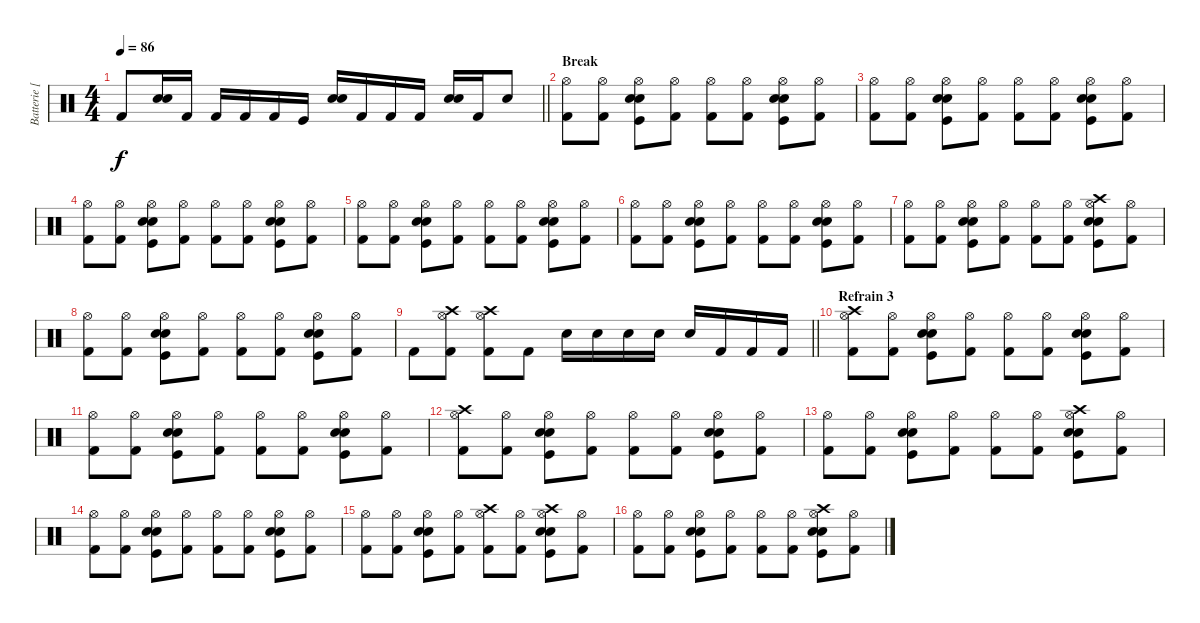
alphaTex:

\track ("Batterie [Dominic Howard]" "Batterie [") {instrument percussion}
\staff {score}
\articulation defaults
\ts (4 4)
\tempo 86
\clef neutral
\barLineRight lightlight
\ks c "Kick (hit) 2".8{dy f}
("Snare (hit) 2" "Electric Snare (hit)").16 "Kick (hit) 2".16 "Kick (hit) 2".16 "Kick (hit) 2".16 "Kick (hit) 2".16 "Kick (hit)".16 ("Snare (hit) 2" "Electric Snare (hit)").16 "Kick (hit) 2".16 "Kick (hit) 2".16 "Kick (hit) 2".16 ("Snare (hit) 2" "Electric Snare (hit)").16 "Kick (hit) 2".16 "Snare (hit) 2".8 |
\section ("" "Break")
("Hi-Hat (open)" "Kick (hit) 2").8 ("Hi-Hat (open)" "Kick (hit) 2").8 ("Hi-Hat (open)" "Snare (hit) 2" "Electric Snare (hit)" "Kick (hit)").8 ("Hi-Hat (open)" "Kick (hit) 2").8 ("Hi-Hat (open)" "Kick (hit) 2").8 ("Hi-Hat (open)" "Kick (hit) 2").8 ("Hi-Hat (open)" "Snare (hit) 2" "Electric Snare (hit)" "Kick (hit)").8 ("Hi-Hat (open)" "Kick (hit) 2").8 |
("Hi-Hat (open)" "Kick (hit) 2").8 ("Hi-Hat (open)" "Kick (hit) 2").8 ("Hi-Hat (open)" "Snare (hit) 2" "Electric Snare (hit)" "Kick (hit)").8 ("Hi-Hat (open)" "Kick (hit) 2").8 ("Hi-Hat (open)" "Kick (hit) 2").8 ("Hi-Hat (open)" "Kick (hit) 2").8 ("Hi-Hat (open)" "Snare (hit) 2" "Electric Snare (hit)" "Kick (hit)").8 ("Hi-Hat (open)" "Kick (hit) 2").8 |
("Hi-Hat (open)" "Kick (hit) 2").8 ("Hi-Hat (open)" "Kick (hit) 2").8 ("Hi-Hat (open)" "Snare (hit) 2" "Electric Snare (hit)" "Kick (hit)").8 ("Hi-Hat (open)" "Kick (hit) 2").8 ("Hi-Hat (open)" "Kick (hit) 2").8 ("Hi-Hat (open)" "Kick (hit) 2").8 ("Hi-Hat (open)" "Snare (hit) 2" "Electric Snare (hit)" "Kick (hit)").8 ("Hi-Hat (open)" "Kick (hit) 2").8 |
("Hi-Hat (open)" "Kick (hit) 2").8 ("Hi-Hat (open)" "Kick (hit) 2").8 ("Hi-Hat (open)" "Snare (hit) 2" "Electric Snare (hit)" "Kick (hit)").8 ("Hi-Hat (open)" "Kick (hit) 2").8 ("Hi-Hat (open)" "Kick (hit) 2").8 ("Hi-Hat (open)" "Kick (hit) 2").8 ("Hi-Hat (open)" "Snare (hit) 2" "Electric Snare (hit)" "Kick (hit)").8 ("Hi-Hat (open)" "Kick (hit) 2").8 |
("Hi-Hat (open)" "Kick (hit) 2").8 ("Hi-Hat (open)" "Kick (hit) 2").8 ("Hi-Hat (open)" "Snare (hit) 2" "Electric Snare (hit)" "Kick (hit)").8 ("Hi-Hat (open)" "Kick (hit) 2").8 ("Hi-Hat (open)" "Kick (hit) 2").8 ("Hi-Hat (open)" "Kick (hit) 2").8 ("Hi-Hat (open)" "Snare (hit) 2" "Electric Snare (hit)" "Kick (hit)").8 ("Hi-Hat (open)" "Kick (hit) 2").8 |
("Hi-Hat (open)" "Kick (hit) 2").8 ("Hi-Hat (open)" "Kick (hit) 2").8 ("Hi-Hat (open)" "Snare (hit) 2" "Electric Snare (hit)" "Kick (hit)").8 ("Hi-Hat (open)" "Kick (hit) 2").8 ("Hi-Hat (open)" "Kick (hit) 2").8 ("Hi-Hat (open)" "Kick (hit) 2").8 ("Hi-Hat (open)" "Snare (hit) 2" "Electric Snare (hit)" "Kick (hit)" "Crash high (hit)").8 ("Hi-Hat (open)" "Kick (hit) 2").8 |
("Hi-Hat (open)" "Kick (hit) 2").8 ("Hi-Hat (open)" "Kick (hit) 2").8 ("Hi-Hat (open)" "Snare (hit) 2" "Electric Snare (hit)" "Kick (hit)").8 ("Hi-Hat (open)" "Kick (hit) 2").8 ("Hi-Hat (open)" "Kick (hit) 2").8 ("Hi-Hat (open)" "Kick (hit) 2").8 ("Hi-Hat (open)" "Snare (hit) 2" "Electric Snare (hit)" "Kick (hit)").8 ("Hi-Hat (open)" "Kick (hit) 2").8 |
\barLineRight lightlight "Kick (hit) 2".8
("Crash high (hit)" "Hi-Hat (open)" "Kick (hit) 2").8 ("Crash high (hit)" "Hi-Hat (open)" "Kick (hit) 2").8 "Kick (hit) 2".8 "Snare (hit) 2".16 "Snare (hit) 2".16 "Snare (hit) 2".16 "Snare (hit) 2".16 "Snare (hit) 2".16 "Kick (hit) 2".16 "Kick (hit) 2".16 "Kick (hit) 2".16 |
\section ("" "Refrain 3")
("Hi-Hat (open)" "Crash high (hit)" "Kick (hit) 2").8 ("Hi-Hat (open)" "Kick (hit) 2").8 ("Hi-Hat (open)" "Snare (hit) 2" "Electric Snare (hit)" "Kick (hit)").8 ("Hi-Hat (open)" "Kick (hit) 2").8 ("Hi-Hat (open)" "Kick (hit) 2").8 ("Hi-Hat (open)" "Kick (hit) 2").8 ("Hi-Hat (open)" "Snare (hit) 2" "Electric Snare (hit)" "Kick (hit)").8 ("Hi-Hat (open)" "Kick (hit) 2").8 |
("Hi-Hat (open)" "Kick (hit) 2").8 ("Hi-Hat (open)" "Kick (hit) 2").8 ("Hi-Hat (open)" "Snare (hit) 2" "Electric Snare (hit)" "Kick (hit)").8 ("Hi-Hat (open)" "Kick (hit) 2").8 ("Hi-Hat (open)" "Kick (hit) 2").8 ("Hi-Hat (open)" "Kick (hit) 2").8 ("Hi-Hat (open)" "Snare (hit) 2" "Electric Snare (hit)" "Kick (hit)").8 ("Hi-Hat (open)" "Kick (hit) 2").8 |
("Hi-Hat (open)" "Crash high (hit)" "Kick (hit) 2").8 ("Hi-Hat (open)" "Kick (hit) 2").8 ("Hi-Hat (open)" "Snare (hit) 2" "Electric Snare (hit)" "Kick (hit)").8 ("Hi-Hat (open)" "Kick (hit) 2").8 ("Hi-Hat (open)" "Kick (hit) 2").8 ("Hi-Hat (open)" "Kick (hit) 2").8 ("Hi-Hat (open)" "Snare (hit) 2" "Electric Snare (hit)" "Kick (hit)").8 ("Hi-Hat (open)" "Kick (hit) 2").8 |
("Hi-Hat (open)" "Kick (hit) 2").8 ("Hi-Hat (open)" "Kick (hit) 2").8 ("Hi-Hat (open)" "Snare (hit) 2" "Electric Snare (hit)" "Kick (hit)").8 ("Hi-Hat (open)" "Kick (hit) 2").8 ("Hi-Hat (open)" "Kick (hit) 2").8 ("Hi-Hat (open)" "Kick (hit) 2").8 ("Hi-Hat (open)" "Snare (hit) 2" "Electric Snare (hit)" "Kick (hit)" "Crash high (hit)").8 ("Hi-Hat (open)" "Kick (hit) 2").8 |
("Hi-Hat (open)" "Kick (hit) 2").8 ("Hi-Hat (open)" "Kick (hit) 2").8 ("Hi-Hat (open)" "Snare (hit) 2" "Electric Snare (hit)" "Kick (hit)").8 ("Hi-Hat (open)" "Kick (hit) 2").8 ("Hi-Hat (open)" "Kick (hit) 2").8 ("Hi-Hat (open)" "Kick (hit) 2").8 ("Hi-Hat (open)" "Snare (hit) 2" "Electric Snare (hit)" "Kick (hit)").8 ("Hi-Hat (open)" "Kick (hit) 2").8 |
("Hi-Hat (open)" "Kick (hit) 2").8 ("Hi-Hat (open)" "Kick (hit) 2").8 ("Hi-Hat (open)" "Snare (hit) 2" "Electric Snare (hit)" "Kick (hit)").8 ("Hi-Hat (open)" "Kick (hit) 2").8 ("Hi-Hat (open)" "Kick (hit) 2" "Crash high (hit)").8 ("Hi-Hat (open)" "Kick (hit) 2").8 ("Hi-Hat (open)" "Snare (hit) 2" "Electric Snare (hit)" "Kick (hit)" "Crash high (hit)").8 ("Hi-Hat (open)" "Kick (hit) 2").8 |
("Hi-Hat (open)" "Kick (hit) 2").8 ("Hi-Hat (open)" "Kick (hit) 2").8 ("Hi-Hat (open)" "Snare (hit) 2" "Electric Snare (hit)" "Kick (hit)").8 ("Hi-Hat (open)" "Kick (hit) 2").8 ("Hi-Hat (open)" "Kick (hit) 2").8 ("Hi-Hat (open)" "Kick (hit) 2").8 ("Hi-Hat (open)" "Snare (hit) 2" "Electric Snare (hit)" "Kick (hit)" "Crash high (hit)").8 ("Hi-Hat (open)" "Kick (hit) 2").8
